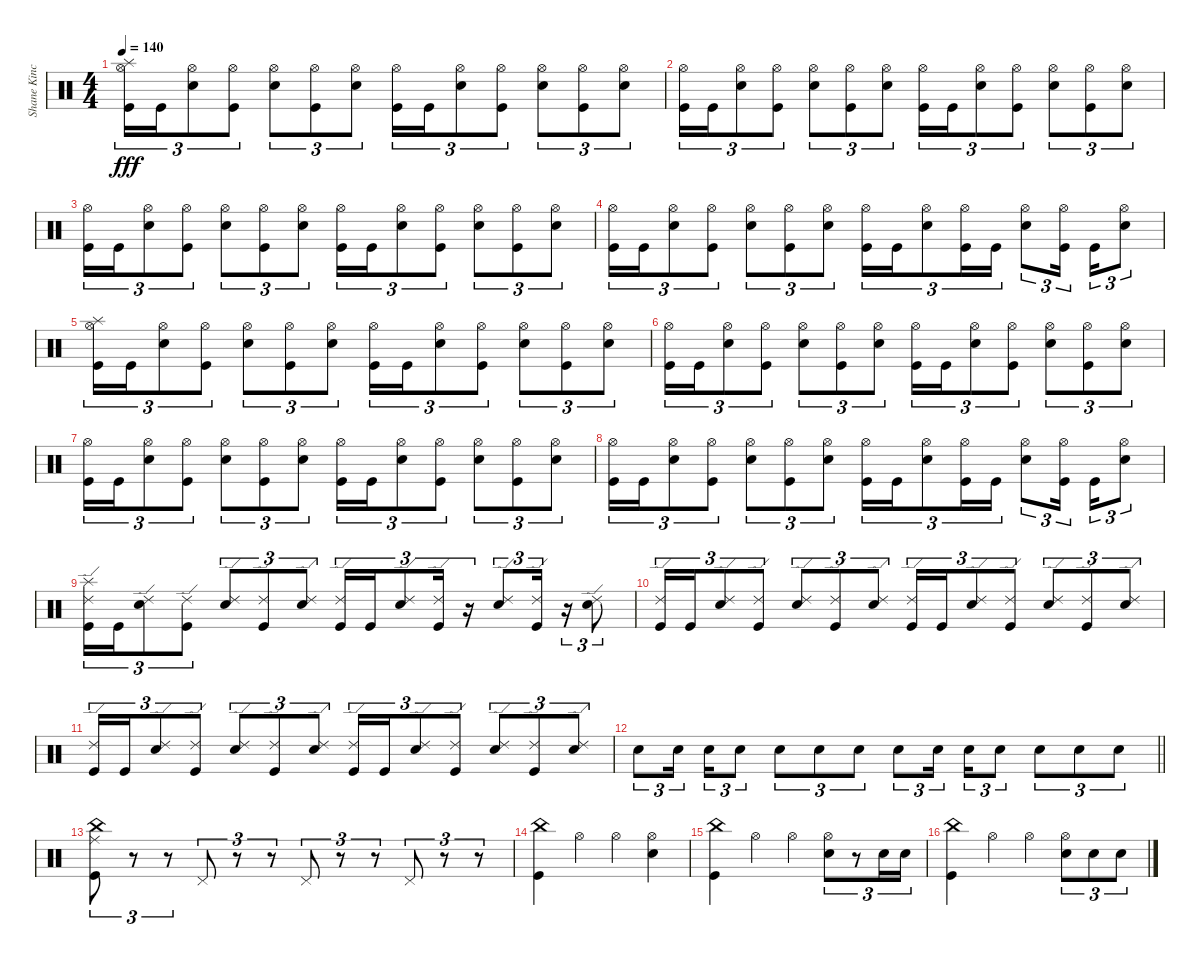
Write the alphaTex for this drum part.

\track ("Shane Kincaid" "Shane Kinc") {instrument percussion}
\staff {score}
\articulation defaults
\ts (4 4)
\tempo 140
\clef neutral
\ks c
("Hi-Hat (open)" "Splash (hit)" "Kick (hit)").16{tu (3 2) dy fff} "Kick (hit)".16{tu (3 2)} ("Hi-Hat (open)" "Electric Snare (hit)").8{tu (3 2)} ("Hi-Hat (open)" "Kick (hit)").8{tu (3 2)} ("Hi-Hat (open)" "Electric Snare (hit)").8{tu (3 2)} ("Hi-Hat (open)" "Kick (hit)").8{tu (3 2)} ("Hi-Hat (open)" "Electric Snare (hit)").8{tu (3 2)} ("Hi-Hat (open)" "Kick (hit)").16{tu (3 2)} "Kick (hit)".16{tu (3 2)} ("Hi-Hat (open)" "Electric Snare (hit)").8{tu (3 2)} ("Hi-Hat (open)" "Kick (hit)").8{tu (3 2)} ("Hi-Hat (open)" "Electric Snare (hit)").8{tu (3 2)} ("Hi-Hat (open)" "Kick (hit)").8{tu (3 2)} ("Hi-Hat (open)" "Electric Snare (hit)").8{tu (3 2)} |
("Hi-Hat (open)" "Kick (hit)").16{tu (3 2)} "Kick (hit)".16{tu (3 2)} ("Hi-Hat (open)" "Electric Snare (hit)").8{tu (3 2)} ("Hi-Hat (open)" "Kick (hit)").8{tu (3 2)} ("Hi-Hat (open)" "Electric Snare (hit)").8{tu (3 2)} ("Hi-Hat (open)" "Kick (hit)").8{tu (3 2)} ("Hi-Hat (open)" "Electric Snare (hit)").8{tu (3 2)} ("Hi-Hat (open)" "Kick (hit)").16{tu (3 2)} "Kick (hit)".16{tu (3 2)} ("Hi-Hat (open)" "Electric Snare (hit)").8{tu (3 2)} ("Hi-Hat (open)" "Kick (hit)").8{tu (3 2)} ("Hi-Hat (open)" "Electric Snare (hit)").8{tu (3 2)} ("Hi-Hat (open)" "Kick (hit)").8{tu (3 2)} ("Hi-Hat (open)" "Electric Snare (hit)").8{tu (3 2)} |
("Hi-Hat (open)" "Kick (hit)").16{tu (3 2)} "Kick (hit)".16{tu (3 2)} ("Hi-Hat (open)" "Electric Snare (hit)").8{tu (3 2)} ("Hi-Hat (open)" "Kick (hit)").8{tu (3 2)} ("Hi-Hat (open)" "Electric Snare (hit)").8{tu (3 2)} ("Hi-Hat (open)" "Kick (hit)").8{tu (3 2)} ("Hi-Hat (open)" "Electric Snare (hit)").8{tu (3 2)} ("Hi-Hat (open)" "Kick (hit)").16{tu (3 2)} "Kick (hit)".16{tu (3 2)} ("Hi-Hat (open)" "Electric Snare (hit)").8{tu (3 2)} ("Hi-Hat (open)" "Kick (hit)").8{tu (3 2)} ("Hi-Hat (open)" "Electric Snare (hit)").8{tu (3 2)} ("Hi-Hat (open)" "Kick (hit)").8{tu (3 2)} ("Hi-Hat (open)" "Electric Snare (hit)").8{tu (3 2)} |
("Hi-Hat (open)" "Kick (hit)").16{tu (3 2)} "Kick (hit)".16{tu (3 2)} ("Hi-Hat (open)" "Electric Snare (hit)").8{tu (3 2)} ("Hi-Hat (open)" "Kick (hit)").8{tu (3 2)} ("Hi-Hat (open)" "Electric Snare (hit)").8{tu (3 2)} ("Hi-Hat (open)" "Kick (hit)").8{tu (3 2)} ("Hi-Hat (open)" "Electric Snare (hit)").8{tu (3 2)} ("Hi-Hat (open)" "Kick (hit)").16{tu (3 2)} "Kick (hit)".16{tu (3 2)} ("Hi-Hat (open)" "Electric Snare (hit)").8{tu (3 2)} ("Hi-Hat (open)" "Kick (hit)").16{tu (3 2)} "Kick (hit)".16{tu (3 2)} ("Hi-Hat (open)" "Electric Snare (hit)").8{tu (3 2)} ("Hi-Hat (open)" "Kick (hit)").16{tu (3 2) beam splitsecondary} "Kick (hit)".16{tu (3 2)} ("Hi-Hat (open)" "Electric Snare (hit)").8{tu (3 2)} |
("Hi-Hat (open)" "Splash (hit)" "Kick (hit)").16{tu (3 2)} "Kick (hit)".16{tu (3 2)} ("Hi-Hat (open)" "Electric Snare (hit)").8{tu (3 2)} ("Hi-Hat (open)" "Kick (hit)").8{tu (3 2)} ("Hi-Hat (open)" "Electric Snare (hit)").8{tu (3 2)} ("Hi-Hat (open)" "Kick (hit)").8{tu (3 2)} ("Hi-Hat (open)" "Electric Snare (hit)").8{tu (3 2)} ("Hi-Hat (open)" "Kick (hit)").16{tu (3 2)} "Kick (hit)".16{tu (3 2)} ("Hi-Hat (open)" "Electric Snare (hit)").8{tu (3 2)} ("Hi-Hat (open)" "Kick (hit)").8{tu (3 2)} ("Hi-Hat (open)" "Electric Snare (hit)").8{tu (3 2)} ("Hi-Hat (open)" "Kick (hit)").8{tu (3 2)} ("Hi-Hat (open)" "Electric Snare (hit)").8{tu (3 2)} |
("Hi-Hat (open)" "Kick (hit)").16{tu (3 2)} "Kick (hit)".16{tu (3 2)} ("Hi-Hat (open)" "Electric Snare (hit)").8{tu (3 2)} ("Hi-Hat (open)" "Kick (hit)").8{tu (3 2)} ("Hi-Hat (open)" "Electric Snare (hit)").8{tu (3 2)} ("Hi-Hat (open)" "Kick (hit)").8{tu (3 2)} ("Hi-Hat (open)" "Electric Snare (hit)").8{tu (3 2)} ("Hi-Hat (open)" "Kick (hit)").16{tu (3 2)} "Kick (hit)".16{tu (3 2)} ("Hi-Hat (open)" "Electric Snare (hit)").8{tu (3 2)} ("Hi-Hat (open)" "Kick (hit)").8{tu (3 2)} ("Hi-Hat (open)" "Electric Snare (hit)").8{tu (3 2)} ("Hi-Hat (open)" "Kick (hit)").8{tu (3 2)} ("Hi-Hat (open)" "Electric Snare (hit)").8{tu (3 2)} |
("Hi-Hat (open)" "Kick (hit)").16{tu (3 2)} "Kick (hit)".16{tu (3 2)} ("Hi-Hat (open)" "Electric Snare (hit)").8{tu (3 2)} ("Hi-Hat (open)" "Kick (hit)").8{tu (3 2)} ("Hi-Hat (open)" "Electric Snare (hit)").8{tu (3 2)} ("Hi-Hat (open)" "Kick (hit)").8{tu (3 2)} ("Hi-Hat (open)" "Electric Snare (hit)").8{tu (3 2)} ("Hi-Hat (open)" "Kick (hit)").16{tu (3 2)} "Kick (hit)".16{tu (3 2)} ("Hi-Hat (open)" "Electric Snare (hit)").8{tu (3 2)} ("Hi-Hat (open)" "Kick (hit)").8{tu (3 2)} ("Hi-Hat (open)" "Electric Snare (hit)").8{tu (3 2)} ("Hi-Hat (open)" "Kick (hit)").8{tu (3 2)} ("Hi-Hat (open)" "Electric Snare (hit)").8{tu (3 2)} |
("Hi-Hat (open)" "Kick (hit)").16{tu (3 2)} "Kick (hit)".16{tu (3 2)} ("Hi-Hat (open)" "Electric Snare (hit)").8{tu (3 2)} ("Hi-Hat (open)" "Kick (hit)").8{tu (3 2)} ("Hi-Hat (open)" "Electric Snare (hit)").8{tu (3 2)} ("Hi-Hat (open)" "Kick (hit)").8{tu (3 2)} ("Hi-Hat (open)" "Electric Snare (hit)").8{tu (3 2)} ("Hi-Hat (open)" "Kick (hit)").16{tu (3 2)} "Kick (hit)".16{tu (3 2)} ("Hi-Hat (open)" "Electric Snare (hit)").8{tu (3 2)} ("Hi-Hat (open)" "Kick (hit)").16{tu (3 2)} "Kick (hit)".16{tu (3 2)} ("Hi-Hat (open)" "Electric Snare (hit)").8{tu (3 2)} ("Hi-Hat (open)" "Kick (hit)").16{tu (3 2) beam splitsecondary} "Kick (hit)".16{tu (3 2)} ("Hi-Hat (open)" "Electric Snare (hit)").8{tu (3 2)} |
("Ride (edge) 2" "Splash (hit)" "Kick (hit)").16{tu (3 2)} "Kick (hit)".16{tu (3 2)} ("Ride (edge) 2" "Electric Snare (hit)").8{tu (3 2)} ("Ride (edge) 2" "Kick (hit)").8{tu (3 2)} ("Ride (edge) 2" "Electric Snare (hit)").8{tu (3 2)} ("Ride (edge) 2" "Kick (hit)").8{tu (3 2)} ("Ride (edge) 2" "Electric Snare (hit)").8{tu (3 2)} ("Ride (edge) 2" "Kick (hit)").16{tu (3 2)} "Kick (hit)".16{tu (3 2)} ("Ride (edge) 2" "Electric Snare (hit)").8{tu (3 2)} ("Ride (edge) 2" "Kick (hit)").16{tu (3 2)} r.16{tu (3 2)} ("Ride (edge) 2" "Electric Snare (hit)").8{tu (3 2)} ("Ride (edge) 2" "Kick (hit)").16{tu (3 2)} r.16{tu (3 2)} ("Ride (edge) 2" "Electric Snare (hit)").8{tu (3 2)} |
("Ride (edge) 2" "Kick (hit)").16{tu (3 2)} "Kick (hit)".16{tu (3 2)} ("Ride (edge) 2" "Electric Snare (hit)").8{tu (3 2)} ("Ride (edge) 2" "Kick (hit)").8{tu (3 2)} ("Ride (edge) 2" "Electric Snare (hit)").8{tu (3 2)} ("Ride (edge) 2" "Kick (hit)").8{tu (3 2)} ("Ride (edge) 2" "Electric Snare (hit)").8{tu (3 2)} ("Ride (edge) 2" "Kick (hit)").16{tu (3 2)} "Kick (hit)".16{tu (3 2)} ("Ride (edge) 2" "Electric Snare (hit)").8{tu (3 2)} ("Ride (edge) 2" "Kick (hit)").8{tu (3 2)} ("Ride (edge) 2" "Electric Snare (hit)").8{tu (3 2)} ("Ride (edge) 2" "Kick (hit)").8{tu (3 2)} ("Ride (edge) 2" "Electric Snare (hit)").8{tu (3 2)} |
("Ride (edge) 2" "Kick (hit)").16{tu (3 2)} "Kick (hit)".16{tu (3 2)} ("Ride (edge) 2" "Electric Snare (hit)").8{tu (3 2)} ("Ride (edge) 2" "Kick (hit)").8{tu (3 2)} ("Ride (edge) 2" "Electric Snare (hit)").8{tu (3 2)} ("Ride (edge) 2" "Kick (hit)").8{tu (3 2)} ("Ride (edge) 2" "Electric Snare (hit)").8{tu (3 2)} ("Ride (edge) 2" "Kick (hit)").16{tu (3 2)} "Kick (hit)".16{tu (3 2)} ("Ride (edge) 2" "Electric Snare (hit)").8{tu (3 2)} ("Ride (edge) 2" "Kick (hit)").8{tu (3 2)} ("Ride (edge) 2" "Electric Snare (hit)").8{tu (3 2)} ("Ride (edge) 2" "Kick (hit)").8{tu (3 2)} ("Ride (edge) 2" "Electric Snare (hit)").8{tu (3 2)} |
\barLineRight lightlight "Electric Snare (hit)".8{tu (3 2)} "Electric Snare (hit)".16{tu (3 2) beam splitsecondary} "Electric Snare (hit)".16{tu (3 2)} "Electric Snare (hit)".8{tu (3 2)} "Electric Snare (hit)".8{tu (3 2)} "Electric Snare (hit)".8{tu (3 2)} "Electric Snare (hit)".8{tu (3 2)} "Electric Snare (hit)".8{tu (3 2)} "Electric Snare (hit)".16{tu (3 2) beam splitsecondary} "Electric Snare (hit)".16{tu (3 2)} "Electric Snare (hit)".8{tu (3 2)} "Electric Snare (hit)".8{tu (3 2)} "Electric Snare (hit)".8{tu (3 2)} "Electric Snare (hit)".8{tu (3 2)}
|
("China (hit)" "Ride (middle)" "Kick (hit)").8{tu (3 2)} r.8{tu (3 2)} r.8{tu (3 2)} "Pedal Hi-Hat (hit)".8{tu (3 2)} r.8{tu (3 2)} r.8{tu (3 2)} "Pedal Hi-Hat (hit)".8{tu (3 2)} r.8{tu (3 2)} r.8{tu (3 2)} "Pedal Hi-Hat (hit)".8{tu (3 2)} r.8{tu (3 2)} r.8{tu (3 2)} |
("China (hit)" "Kick (hit)").4 "Hi-Hat (open)".4 "Hi-Hat (open)".4 ("Hi-Hat (open)" "Electric Snare (hit)").4 |
("China (hit)" "Kick (hit)").4 "Hi-Hat (open)".4 "Hi-Hat (open)".4 ("Hi-Hat (open)" "Electric Snare (hit)").8{tu (3 2)} r.8{tu (3 2)} "Electric Snare (hit)".16{tu (3 2)} "Electric Snare (hit)".16{tu (3 2)} |
("China (hit)" "Kick (hit)").4 "Hi-Hat (open)".4 "Hi-Hat (open)".4 ("Hi-Hat (open)" "Electric Snare (hit)").8{tu (3 2)} "Electric Snare (hit)".8{tu (3 2)} "Electric Snare (hit)".8{tu (3 2)}
